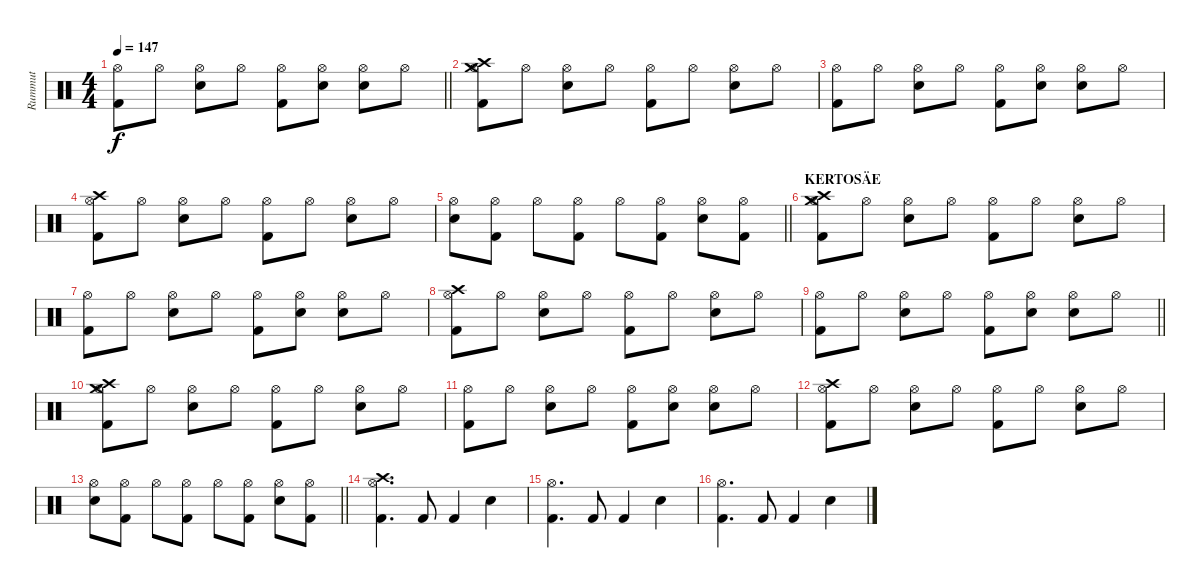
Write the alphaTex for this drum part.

\track ("Rummut" "Rummut") {instrument percussion}
\staff {score}
\articulation defaults
\ts (4 4)
\tempo 147
\clef neutral
\barLineRight lightlight
\ks c
("Hi-Hat (open)" "Kick (hit) 2").8{dy f} "Hi-Hat (open)".8 ("Hi-Hat (open)" "Snare (hit) 2").8 "Hi-Hat (open)".8 ("Hi-Hat (open)" "Kick (hit) 2").8 ("Hi-Hat (open)" "Snare (hit) 2").8 ("Hi-Hat (open)" "Snare (hit) 2").8 "Hi-Hat (open)".8 |
("Crash high (hit)" "Crash medium (hit)" "Hi-Hat (open)" "Kick (hit) 2").8 "Hi-Hat (open)".8 ("Hi-Hat (open)" "Snare (hit) 2").8 "Hi-Hat (open)".8 ("Hi-Hat (open)" "Kick (hit) 2").8 "Hi-Hat (open)".8 ("Hi-Hat (open)" "Snare (hit) 2").8 "Hi-Hat (open)".8 |
("Hi-Hat (open)" "Kick (hit) 2").8 "Hi-Hat (open)".8 ("Hi-Hat (open)" "Snare (hit) 2").8 "Hi-Hat (open)".8 ("Hi-Hat (open)" "Kick (hit) 2").8 ("Hi-Hat (open)" "Snare (hit) 2").8 ("Hi-Hat (open)" "Snare (hit) 2").8 "Hi-Hat (open)".8 |
("Crash high (hit)" "Hi-Hat (open)" "Kick (hit) 2").8 "Hi-Hat (open)".8 ("Hi-Hat (open)" "Snare (hit) 2").8 "Hi-Hat (open)".8 ("Hi-Hat (open)" "Kick (hit) 2").8 "Hi-Hat (open)".8 ("Hi-Hat (open)" "Snare (hit) 2").8 "Hi-Hat (open)".8 |
\barLineRight lightlight
("Hi-Hat (open)" "Snare (hit) 2").8 ("Hi-Hat (open)" "Kick (hit) 2").8 "Hi-Hat (open)".8 ("Hi-Hat (open)" "Kick (hit) 2").8 "Hi-Hat (open)".8 ("Hi-Hat (open)" "Kick (hit) 2").8 ("Hi-Hat (open)" "Snare (hit) 2").8 ("Hi-Hat (open)" "Kick (hit) 2").8 |
\section ("" "KERTOSÄE")
("Crash high (hit)" "Crash medium (hit)" "Hi-Hat (open)" "Kick (hit) 2").8 "Hi-Hat (open)".8 ("Hi-Hat (open)" "Snare (hit) 2").8 "Hi-Hat (open)".8 ("Hi-Hat (open)" "Kick (hit) 2").8 "Hi-Hat (open)".8 ("Hi-Hat (open)" "Snare (hit) 2").8 "Hi-Hat (open)".8 |
("Hi-Hat (open)" "Kick (hit) 2").8 "Hi-Hat (open)".8 ("Hi-Hat (open)" "Snare (hit) 2").8 "Hi-Hat (open)".8 ("Hi-Hat (open)" "Kick (hit) 2").8 ("Hi-Hat (open)" "Snare (hit) 2").8 ("Hi-Hat (open)" "Snare (hit) 2").8 "Hi-Hat (open)".8 |
("Crash high (hit)" "Hi-Hat (open)" "Kick (hit) 2").8 "Hi-Hat (open)".8 ("Hi-Hat (open)" "Snare (hit) 2").8 "Hi-Hat (open)".8 ("Hi-Hat (open)" "Kick (hit) 2").8 "Hi-Hat (open)".8 ("Hi-Hat (open)" "Snare (hit) 2").8 "Hi-Hat (open)".8 |
\barLineRight lightlight
("Hi-Hat (open)" "Kick (hit) 2").8 "Hi-Hat (open)".8 ("Hi-Hat (open)" "Snare (hit) 2").8 "Hi-Hat (open)".8 ("Hi-Hat (open)" "Kick (hit) 2").8 ("Hi-Hat (open)" "Snare (hit) 2").8 ("Hi-Hat (open)" "Snare (hit) 2").8 "Hi-Hat (open)".8 |
("Crash high (hit)" "Crash medium (hit)" "Hi-Hat (open)" "Kick (hit) 2").8 "Hi-Hat (open)".8 ("Hi-Hat (open)" "Snare (hit) 2").8 "Hi-Hat (open)".8 ("Hi-Hat (open)" "Kick (hit) 2").8 "Hi-Hat (open)".8 ("Hi-Hat (open)" "Snare (hit) 2").8 "Hi-Hat (open)".8 |
("Hi-Hat (open)" "Kick (hit) 2").8 "Hi-Hat (open)".8 ("Hi-Hat (open)" "Snare (hit) 2").8 "Hi-Hat (open)".8 ("Hi-Hat (open)" "Kick (hit) 2").8 ("Hi-Hat (open)" "Snare (hit) 2").8 ("Hi-Hat (open)" "Snare (hit) 2").8 "Hi-Hat (open)".8 |
("Crash high (hit)" "Hi-Hat (open)" "Kick (hit) 2").8 "Hi-Hat (open)".8 ("Hi-Hat (open)" "Snare (hit) 2").8 "Hi-Hat (open)".8 ("Hi-Hat (open)" "Kick (hit) 2").8 "Hi-Hat (open)".8 ("Hi-Hat (open)" "Snare (hit) 2").8 "Hi-Hat (open)".8 |
\barLineRight lightlight
("Hi-Hat (open)" "Snare (hit) 2").8 ("Hi-Hat (open)" "Kick (hit) 2").8 "Hi-Hat (open)".8 ("Hi-Hat (open)" "Kick (hit) 2").8 "Hi-Hat (open)".8 ("Hi-Hat (open)" "Kick (hit) 2").8 ("Hi-Hat (open)" "Snare (hit) 2").8 ("Hi-Hat (open)" "Kick (hit) 2").8 |
("Crash high (hit)" "Hi-Hat (open)" "Kick (hit) 2").4{d} "Kick (hit) 2".8 "Kick (hit) 2".4 "Snare (hit) 2".4 |
("Hi-Hat (open)" "Kick (hit) 2").4{d} "Kick (hit) 2".8 "Kick (hit) 2".4 "Snare (hit) 2".4 |
("Hi-Hat (open)" "Kick (hit) 2").4{d} "Kick (hit) 2".8 "Kick (hit) 2".4 "Snare (hit) 2".4
